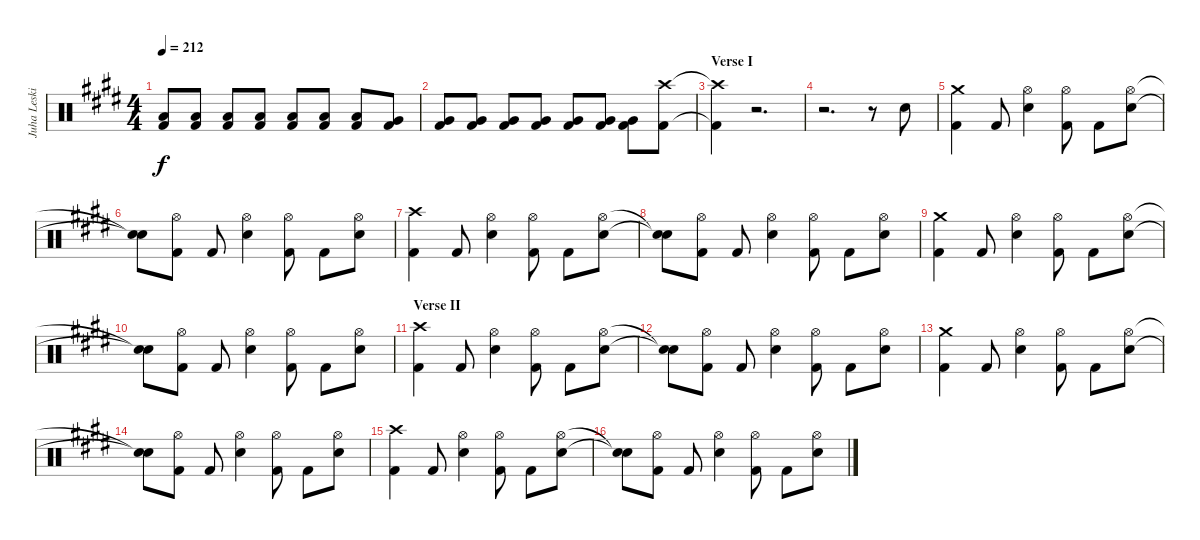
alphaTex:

\track ("Juha Leskinen - Drums" "Juha Leski") {instrument percussion}
\staff {score}
\articulation defaults
\ts (4 4)
\tempo 212
\clef neutral
\ks c#minor
("Low Tom (hit)" "Kick (hit) 2").8{dy f} ("Low Tom (hit)" "Kick (hit) 2").8 ("Low Tom (hit)" "Kick (hit) 2").8 ("Low Tom (hit)" "Kick (hit) 2").8 ("Low Tom (hit)" "Kick (hit) 2").8 ("Low Tom (hit)" "Kick (hit) 2").8 ("Low Tom (hit)" "Kick (hit) 2").8 ("Very Low Tom (hit)" "Kick (hit) 2").8 |
("Very Low Tom (hit)" "Kick (hit) 2").8 ("Very Low Tom (hit)" "Kick (hit) 2").8 ("Very Low Tom (hit)" "Kick (hit) 2").8 ("Very Low Tom (hit)" "Kick (hit) 2").8 ("Very Low Tom (hit)" "Kick (hit) 2").8 ("Very Low Tom (hit)" "Kick (hit) 2").8 ("Very Low Tom (hit)" "Kick (hit) 2").8 ("Crash high (hit)" "Kick (hit) 2").8 |
\section ("" "Verse I")
("Crash high (hit)"{t} "Kick (hit) 2"{t}).4 r.2{d} |
r.2{d} r.8 "Electric Snare (hit)".8 |
("Crash medium (hit)" "Kick (hit) 2").4 "Kick (hit) 2".8 ("Hi-Hat (open)" "Electric Snare (hit)").4 ("Hi-Hat (open)" "Kick (hit) 2").8 "Kick (hit) 2".8 ("Hi-Hat (open)" "Electric Snare (hit)").8 |
("Snare (hit)"{t} "Snare (hit)"{t}).8 ("Hi-Hat (open)" "Kick (hit) 2").8 "Kick (hit) 2".8 ("Hi-Hat (open)" "Electric Snare (hit)").4 ("Hi-Hat (open)" "Kick (hit) 2").8 "Kick (hit) 2".8 ("Hi-Hat (open)" "Electric Snare (hit)").8 |
("Crash high (hit)" "Kick (hit) 2").4 "Kick (hit) 2".8 ("Hi-Hat (open)" "Electric Snare (hit)").4 ("Hi-Hat (open)" "Kick (hit) 2").8 "Kick (hit) 2".8 ("Hi-Hat (open)" "Electric Snare (hit)").8 |
("Snare (hit)"{t} "Snare (hit)"{t}).8 ("Hi-Hat (open)" "Kick (hit) 2").8 "Kick (hit) 2".8 ("Hi-Hat (open)" "Electric Snare (hit)").4 ("Hi-Hat (open)" "Kick (hit) 2").8 "Kick (hit) 2".8 ("Hi-Hat (open)" "Electric Snare (hit)").8 |
("Crash medium (hit)" "Kick (hit) 2").4 "Kick (hit) 2".8 ("Hi-Hat (open)" "Electric Snare (hit)").4 ("Hi-Hat (open)" "Kick (hit) 2").8 "Kick (hit) 2".8 ("Hi-Hat (open)" "Electric Snare (hit)").8 |
("Snare (hit)"{t} "Snare (hit)"{t}).8 ("Hi-Hat (open)" "Kick (hit) 2").8 "Kick (hit) 2".8 ("Hi-Hat (open)" "Electric Snare (hit)").4 ("Hi-Hat (open)" "Kick (hit) 2").8 "Kick (hit) 2".8 ("Hi-Hat (open)" "Electric Snare (hit)").8 |
\section ("" "Verse II")
("Crash high (hit)" "Kick (hit) 2").4 "Kick (hit) 2".8 ("Hi-Hat (open)" "Electric Snare (hit)").4 ("Hi-Hat (open)" "Kick (hit) 2").8 "Kick (hit) 2".8 ("Hi-Hat (open)" "Electric Snare (hit)").8 |
("Snare (hit)"{t} "Snare (hit)"{t}).8 ("Hi-Hat (open)" "Kick (hit) 2").8 "Kick (hit) 2".8 ("Hi-Hat (open)" "Electric Snare (hit)").4 ("Hi-Hat (open)" "Kick (hit) 2").8 "Kick (hit) 2".8 ("Hi-Hat (open)" "Electric Snare (hit)").8 |
("Crash medium (hit)" "Kick (hit) 2").4 "Kick (hit) 2".8 ("Hi-Hat (open)" "Electric Snare (hit)").4 ("Hi-Hat (open)" "Kick (hit) 2").8 "Kick (hit) 2".8 ("Hi-Hat (open)" "Electric Snare (hit)").8 |
("Snare (hit)"{t} "Snare (hit)"{t}).8 ("Hi-Hat (open)" "Kick (hit) 2").8 "Kick (hit) 2".8 ("Hi-Hat (open)" "Electric Snare (hit)").4 ("Hi-Hat (open)" "Kick (hit) 2").8 "Kick (hit) 2".8 ("Hi-Hat (open)" "Electric Snare (hit)").8 |
("Crash high (hit)" "Kick (hit) 2").4 "Kick (hit) 2".8 ("Hi-Hat (open)" "Electric Snare (hit)").4 ("Hi-Hat (open)" "Kick (hit) 2").8 "Kick (hit) 2".8 ("Hi-Hat (open)" "Electric Snare (hit)").8 |
("Snare (hit)"{t} "Snare (hit)"{t}).8 ("Hi-Hat (open)" "Kick (hit) 2").8 "Kick (hit) 2".8 ("Hi-Hat (open)" "Electric Snare (hit)").4 ("Hi-Hat (open)" "Kick (hit) 2").8 "Kick (hit) 2".8 ("Hi-Hat (open)" "Electric Snare (hit)").8
